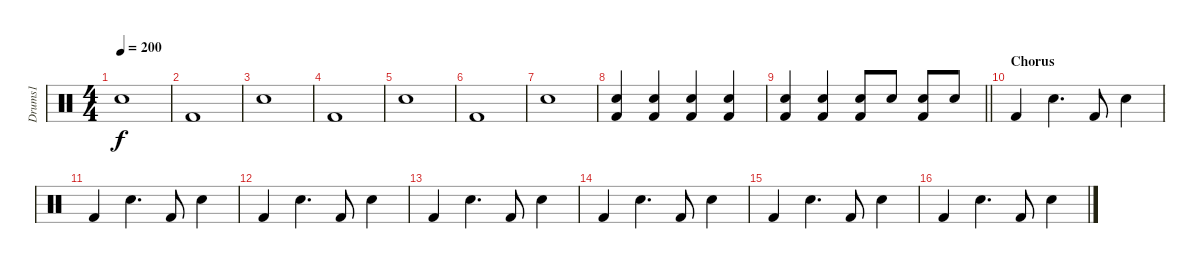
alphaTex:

\track ("Drums1" "Drums1") {instrument percussion}
\staff {score}
\articulation defaults
\ts (4 4)
\tempo 200
\clef neutral
\ks c "Snare (hit) 2".1{dy f}
|
"Kick (hit) 2".1 |
"Snare (hit) 2".1 |
"Kick (hit) 2".1 |
"Snare (hit) 2".1 |
"Kick (hit) 2".1 |
"Snare (hit) 2".1 |
("Kick (hit) 2" "Snare (hit) 2").4 ("Kick (hit) 2" "Snare (hit) 2").4 ("Kick (hit) 2" "Snare (hit) 2").4 ("Kick (hit) 2" "Snare (hit) 2").4 |
\barLineRight lightlight
("Kick (hit) 2" "Snare (hit) 2").4 ("Kick (hit) 2" "Snare (hit) 2").4 ("Kick (hit) 2" "Snare (hit) 2").8 "Snare (hit) 2".8 ("Kick (hit) 2" "Snare (hit) 2").8 "Snare (hit) 2".8 |
\section ("" "Chorus")
"Kick (hit) 2".4 "Snare (hit) 2".4{d} "Kick (hit) 2".8 "Snare (hit) 2".4 |
"Kick (hit) 2".4 "Snare (hit) 2".4{d} "Kick (hit) 2".8 "Snare (hit) 2".4 |
"Kick (hit) 2".4 "Snare (hit) 2".4{d} "Kick (hit) 2".8 "Snare (hit) 2".4 |
"Kick (hit) 2".4 "Snare (hit) 2".4{d} "Kick (hit) 2".8 "Snare (hit) 2".4 |
"Kick (hit) 2".4 "Snare (hit) 2".4{d} "Kick (hit) 2".8 "Snare (hit) 2".4 |
"Kick (hit) 2".4 "Snare (hit) 2".4{d} "Kick (hit) 2".8 "Snare (hit) 2".4 |
"Kick (hit) 2".4 "Snare (hit) 2".4{d} "Kick (hit) 2".8 "Snare (hit) 2".4
